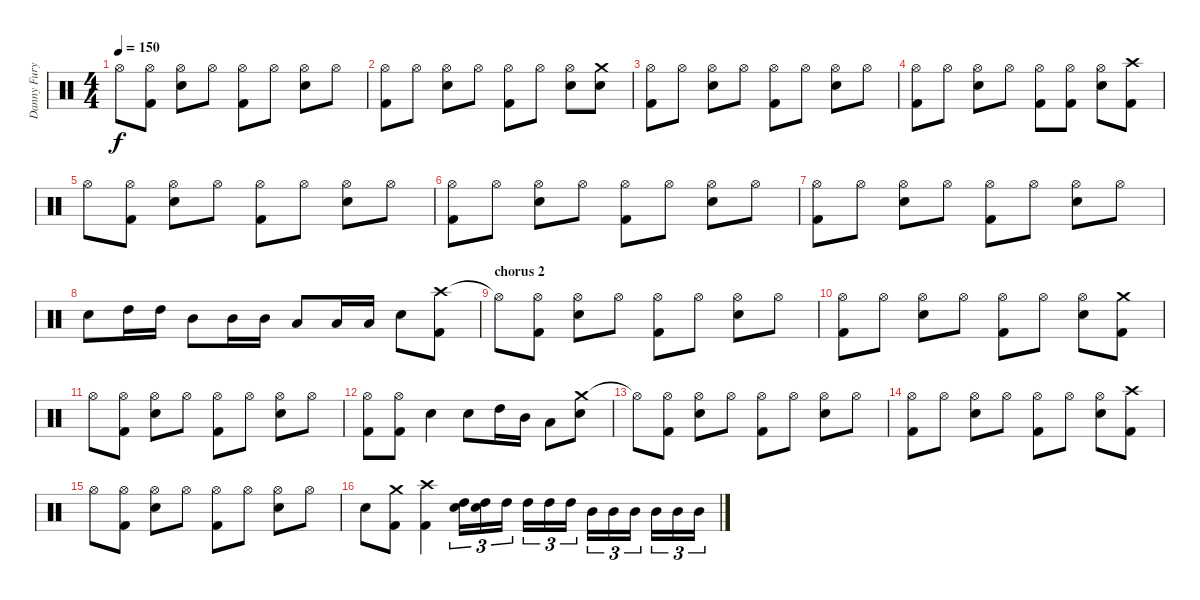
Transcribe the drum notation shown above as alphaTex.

\track ("Danny Fury" "Danny Fury") {instrument percussion}
\staff {score}
\articulation defaults
\ts (4 4)
\tempo 150
\clef neutral
\ks c "Hi-Hat (open)".8{dy f}
("Hi-Hat (open)" "Kick (hit) 2").8 ("Hi-Hat (open)" "Electric Snare (hit)").8 "Hi-Hat (open)".8 ("Hi-Hat (open)" "Kick (hit) 2").8 "Hi-Hat (open)".8 ("Hi-Hat (open)" "Electric Snare (hit)").8 "Hi-Hat (open)".8 |
("Hi-Hat (open)" "Kick (hit) 2").8 "Hi-Hat (open)".8 ("Hi-Hat (open)" "Electric Snare (hit)").8 "Hi-Hat (open)".8 ("Hi-Hat (open)" "Kick (hit) 2").8 "Hi-Hat (open)".8 ("Hi-Hat (open)" "Electric Snare (hit)").8 ("Crash medium (hit)" "Electric Snare (hit)").8 |
("Hi-Hat (open)" "Kick (hit) 2").8 "Hi-Hat (open)".8 ("Hi-Hat (open)" "Electric Snare (hit)").8 "Hi-Hat (open)".8 ("Hi-Hat (open)" "Kick (hit) 2").8 "Hi-Hat (open)".8 ("Hi-Hat (open)" "Electric Snare (hit)").8 "Hi-Hat (open)".8 |
("Hi-Hat (open)" "Kick (hit) 2").8 "Hi-Hat (open)".8 ("Hi-Hat (open)" "Electric Snare (hit)").8 "Hi-Hat (open)".8 ("Hi-Hat (open)" "Kick (hit) 2").8 ("Hi-Hat (open)" "Kick (hit) 2").8 ("Hi-Hat (open)" "Electric Snare (hit)").8 ("Crash high (hit)" "Kick (hit) 2").8 |
"Hi-Hat (open)".8 ("Hi-Hat (open)" "Kick (hit) 2").8 ("Hi-Hat (open)" "Electric Snare (hit)").8 "Hi-Hat (open)".8 ("Hi-Hat (open)" "Kick (hit) 2").8 "Hi-Hat (open)".8 ("Hi-Hat (open)" "Electric Snare (hit)").8 "Hi-Hat (open)".8 |
("Hi-Hat (open)" "Kick (hit) 2").8 "Hi-Hat (open)".8 ("Hi-Hat (open)" "Electric Snare (hit)").8 "Hi-Hat (open)".8 ("Hi-Hat (open)" "Kick (hit) 2").8 "Hi-Hat (open)".8 ("Hi-Hat (open)" "Electric Snare (hit)").8 "Hi-Hat (open)".8 |
("Hi-Hat (open)" "Kick (hit) 2").8 "Hi-Hat (open)".8 ("Hi-Hat (open)" "Electric Snare (hit)").8 "Hi-Hat (open)".8 ("Hi-Hat (open)" "Kick (hit) 2").8 "Hi-Hat (open)".8 ("Hi-Hat (open)" "Electric Snare (hit)").8 "Hi-Hat (open)".8 |
"Electric Snare (hit)".8 "High Tom (hit)".16 "High Tom (hit)".16 "Mid Tom (hit)".8 "Mid Tom (hit)".16 "Mid Tom (hit)".16 "Low Tom (hit)".8 "Low Tom (hit)".16 "Low Tom (hit)".16 "Electric Snare (hit)".8 ("Crash high (hit)" "Kick (hit) 2").8 |
\section ("" "chorus 2")
"Hi-Hat (open)"{t}.8 ("Hi-Hat (open)" "Kick (hit) 2").8 ("Hi-Hat (open)" "Electric Snare (hit)").8 "Hi-Hat (open)".8 ("Hi-Hat (open)" "Kick (hit) 2").8 "Hi-Hat (open)".8 ("Hi-Hat (open)" "Electric Snare (hit)").8 "Hi-Hat (open)".8 |
("Hi-Hat (open)" "Kick (hit) 2").8 "Hi-Hat (open)".8 ("Hi-Hat (open)" "Electric Snare (hit)").8 "Hi-Hat (open)".8 ("Hi-Hat (open)" "Kick (hit) 2").8 "Hi-Hat (open)".8 ("Hi-Hat (open)" "Electric Snare (hit)").8 ("Crash medium (hit)" "Kick (hit) 2").8 |
"Hi-Hat (open)".8 ("Hi-Hat (open)" "Kick (hit) 2").8 ("Hi-Hat (open)" "Electric Snare (hit)").8 "Hi-Hat (open)".8 ("Hi-Hat (open)" "Kick (hit) 2").8 "Hi-Hat (open)".8 ("Hi-Hat (open)" "Electric Snare (hit)").8 "Hi-Hat (open)".8 |
("Hi-Hat (open)" "Kick (hit) 2").8 ("Hi-Hat (open)" "Kick (hit) 2").8 "Electric Snare (hit)".4 "Electric Snare (hit)".8 "High Tom (hit)".16 "Mid Tom (hit)".16 "Low Floor Tom (hit)".8 ("Crash medium (hit)" "Electric Snare (hit)").8 |
"Hi-Hat (open)"{t}.8 ("Hi-Hat (open)" "Kick (hit) 2").8 ("Hi-Hat (open)" "Electric Snare (hit)").8 "Hi-Hat (open)".8 ("Hi-Hat (open)" "Kick (hit) 2").8 "Hi-Hat (open)".8 ("Hi-Hat (open)" "Electric Snare (hit)").8 "Hi-Hat (open)".8 |
("Hi-Hat (open)" "Kick (hit) 2").8 "Hi-Hat (open)".8 ("Hi-Hat (open)" "Electric Snare (hit)").8 "Hi-Hat (open)".8 ("Hi-Hat (open)" "Kick (hit) 2").8 "Hi-Hat (open)".8 ("Hi-Hat (open)" "Electric Snare (hit)").8 ("Crash high (hit)" "Kick (hit) 2").8 |
"Hi-Hat (open)".8 ("Hi-Hat (open)" "Kick (hit) 2").8 ("Hi-Hat (open)" "Electric Snare (hit)").8 "Hi-Hat (open)".8 ("Hi-Hat (open)" "Kick (hit) 2").8 "Hi-Hat (open)".8 ("Hi-Hat (open)" "Electric Snare (hit)").8 "Hi-Hat (open)".8 |
"Electric Snare (hit)".8 ("Crash medium (hit)" "Kick (hit) 2").8 ("Crash high (hit)" "Kick (hit) 2").4 ("High Tom (hit)" "Electric Snare (hit)").16{tu (3 2)} ("High Tom (hit)" "Electric Snare (hit)").16{tu (3 2)} "High Tom (hit)".16{tu (3 2)} "High Tom (hit)".16{tu (3 2)} "High Tom (hit)".16{tu (3 2)} "High Tom (hit)".16{tu (3 2)} "Mid Tom (hit)".16{tu (3 2)} "Mid Tom (hit)".16{tu (3 2)} "Mid Tom (hit)".16{tu (3 2)} "Mid Tom (hit)".16{tu (3 2)} "Mid Tom (hit)".16{tu (3 2)} "Mid Tom (hit)".16{tu (3 2)}
